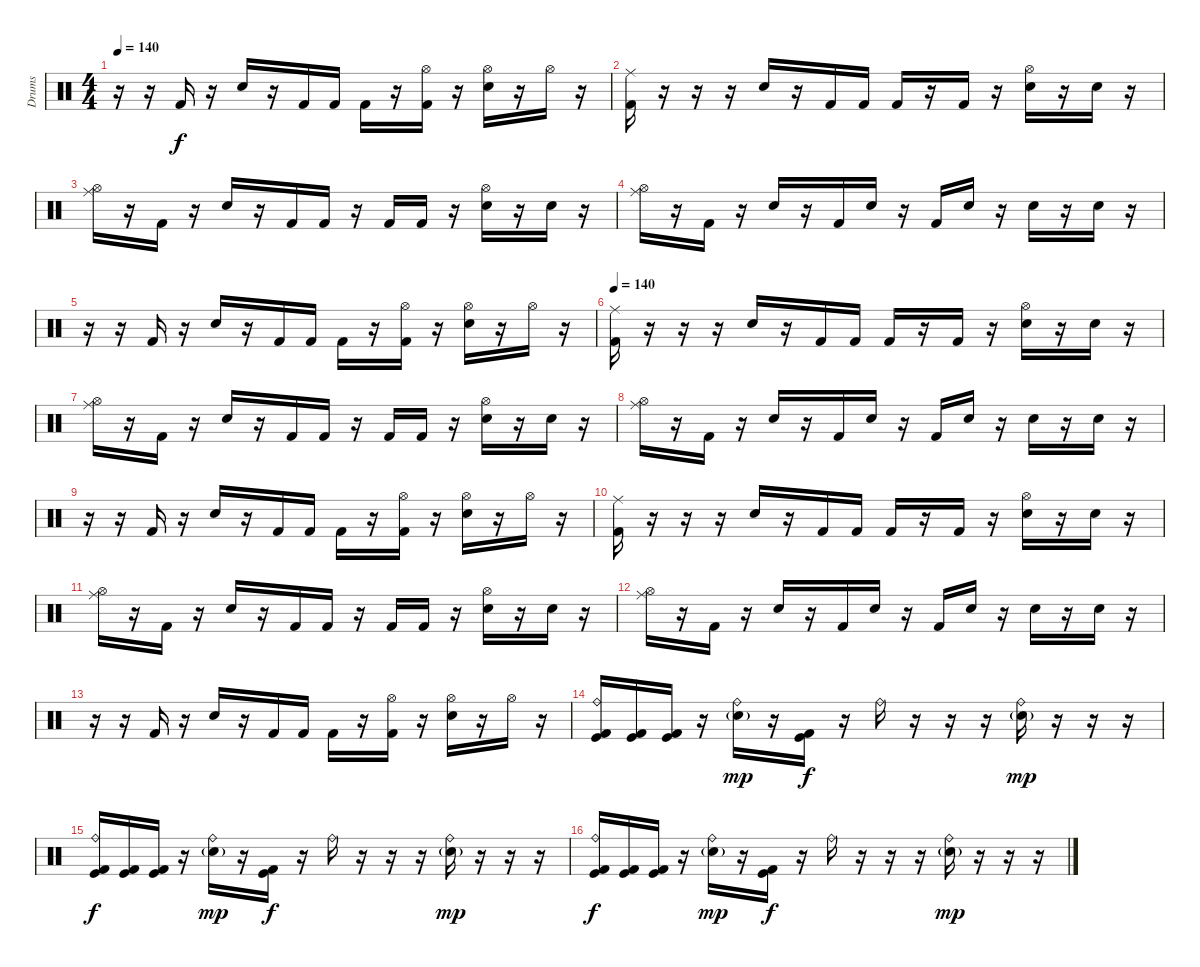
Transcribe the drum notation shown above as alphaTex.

\track ("Drums" "Drums") {instrument percussion}
\staff {score}
\articulation defaults
\ts (4 4)
\tempo 140
\clef neutral
\ks c
r.16{dy f} r.16 "Kick (hit) 2".16 r.16 "Electric Snare (hit)".16 r.16 "Kick (hit) 2".16 "Kick (hit) 2".16 "Kick (hit) 2".16 r.16 ("Hi-Hat (open)" "Kick (hit) 2").16 r.16 ("Hi-Hat (open)" "Electric Snare (hit)").16 r.16 "Hi-Hat (open)".16 r.16 |
("Ride (middle)" "Kick (hit) 2").16 r.16 r.16 r.16 "Electric Snare (hit)".16 r.16 "Kick (hit) 2".16 "Kick (hit) 2".16 "Kick (hit) 2".16 r.16 "Kick (hit) 2".16 r.16 ("Hi-Hat (open)" "Electric Snare (hit)").16 r.16 "Electric Snare (hit)".16 r.16 |
("Ride (middle)" "Hi-Hat (open)").16 r.16 "Kick (hit) 2".16 r.16 "Electric Snare (hit)".16 r.16 "Kick (hit) 2".16 "Kick (hit) 2".16 r.16 "Kick (hit) 2".16 "Kick (hit) 2".16 r.16 ("Hi-Hat (open)" "Electric Snare (hit)").16 r.16 "Electric Snare (hit)".16 r.16 |
("Ride (middle)" "Hi-Hat (open)").16 r.16 "Kick (hit) 2".16 r.16 "Electric Snare (hit)".16 r.16 "Kick (hit) 2".16 "Electric Snare (hit)".16 r.16 "Kick (hit) 2".16 "Electric Snare (hit)".16 r.16 "Electric Snare (hit)".16 r.16 "Electric Snare (hit)".16 r.16 |
r.16 r.16 "Kick (hit) 2".16 r.16 "Electric Snare (hit)".16 r.16 "Kick (hit) 2".16 "Kick (hit) 2".16 "Kick (hit) 2".16 r.16 ("Hi-Hat (open)" "Kick (hit) 2").16 r.16 ("Hi-Hat (open)" "Electric Snare (hit)").16 r.16 "Hi-Hat (open)".16 r.16 |
\tempo 140
("Ride (middle)" "Kick (hit) 2").16 r.16 r.16 r.16 "Electric Snare (hit)".16 r.16 "Kick (hit) 2".16 "Kick (hit) 2".16 "Kick (hit) 2".16 r.16 "Kick (hit) 2".16 r.16 ("Hi-Hat (open)" "Electric Snare (hit)").16 r.16 "Electric Snare (hit)".16 r.16 |
("Ride (middle)" "Hi-Hat (open)").16 r.16 "Kick (hit) 2".16 r.16 "Electric Snare (hit)".16 r.16 "Kick (hit) 2".16 "Kick (hit) 2".16 r.16 "Kick (hit) 2".16 "Kick (hit) 2".16 r.16 ("Hi-Hat (open)" "Electric Snare (hit)").16 r.16 "Electric Snare (hit)".16 r.16 |
("Ride (middle)" "Hi-Hat (open)").16 r.16 "Kick (hit) 2".16 r.16 "Electric Snare (hit)".16 r.16 "Kick (hit) 2".16 "Electric Snare (hit)".16 r.16 "Kick (hit) 2".16 "Electric Snare (hit)".16 r.16 "Electric Snare (hit)".16 r.16 "Electric Snare (hit)".16 r.16 |
r.16 r.16 "Kick (hit) 2".16 r.16 "Electric Snare (hit)".16 r.16 "Kick (hit) 2".16 "Kick (hit) 2".16 "Kick (hit) 2".16 r.16 ("Hi-Hat (open)" "Kick (hit) 2").16 r.16 ("Hi-Hat (open)" "Electric Snare (hit)").16 r.16 "Hi-Hat (open)".16 r.16 |
("Ride (middle)" "Kick (hit) 2").16 r.16 r.16 r.16 "Electric Snare (hit)".16 r.16 "Kick (hit) 2".16 "Kick (hit) 2".16 "Kick (hit) 2".16 r.16 "Kick (hit) 2".16 r.16 ("Hi-Hat (open)" "Electric Snare (hit)").16 r.16 "Electric Snare (hit)".16 r.16 |
("Ride (middle)" "Hi-Hat (open)").16 r.16 "Kick (hit) 2".16 r.16 "Electric Snare (hit)".16 r.16 "Kick (hit) 2".16 "Kick (hit) 2".16 r.16 "Kick (hit) 2".16 "Kick (hit) 2".16 r.16 ("Hi-Hat (open)" "Electric Snare (hit)").16 r.16 "Electric Snare (hit)".16 r.16 |
("Ride (middle)" "Hi-Hat (open)").16 r.16 "Kick (hit) 2".16 r.16 "Electric Snare (hit)".16 r.16 "Kick (hit) 2".16 "Electric Snare (hit)".16 r.16 "Kick (hit) 2".16 "Electric Snare (hit)".16 r.16 "Electric Snare (hit)".16 r.16 "Electric Snare (hit)".16 r.16 |
r.16 r.16 "Kick (hit) 2".16 r.16 "Electric Snare (hit)".16 r.16 "Kick (hit) 2".16 "Kick (hit) 2".16 "Kick (hit) 2".16 r.16 ("Hi-Hat (open)" "Kick (hit) 2").16 r.16 ("Hi-Hat (open)" "Electric Snare (hit)").16 r.16 "Hi-Hat (open)".16 r.16 |
("Ride (bell)" "Kick (hit)" "Kick (hit) 2").16 ("Kick (hit)" "Kick (hit) 2").16 ("Kick (hit)" "Kick (hit) 2").16 r.16 ("Ride (bell)" "Electric Snare (hit)"{g}).16{dy mp} r.16 ("Kick (hit)" "Kick (hit) 2").16{dy f} r.16 "Ride (bell)".16 r.16 r.16 r.16 ("Ride (bell)" "Electric Snare (hit)"{g}).16{dy mp} r.16 r.16 r.16 |
("Ride (bell)" "Kick (hit)" "Kick (hit) 2").16{dy f} ("Kick (hit)" "Kick (hit) 2").16 ("Kick (hit)" "Kick (hit) 2").16 r.16 ("Ride (bell)" "Electric Snare (hit)"{g}).16{dy mp} r.16 ("Kick (hit)" "Kick (hit) 2").16{dy f} r.16 "Ride (bell)".16 r.16 r.16 r.16 ("Ride (bell)" "Electric Snare (hit)"{g}).16{dy mp} r.16 r.16 r.16 |
("Ride (bell)" "Kick (hit)" "Kick (hit) 2").16{dy f} ("Kick (hit)" "Kick (hit) 2").16 ("Kick (hit)" "Kick (hit) 2").16 r.16 ("Ride (bell)" "Electric Snare (hit)"{g}).16{dy mp} r.16 ("Kick (hit)" "Kick (hit) 2").16{dy f} r.16 "Ride (bell)".16 r.16 r.16 r.16 ("Ride (bell)" "Electric Snare (hit)"{g}).16{dy mp} r.16 r.16 r.16
